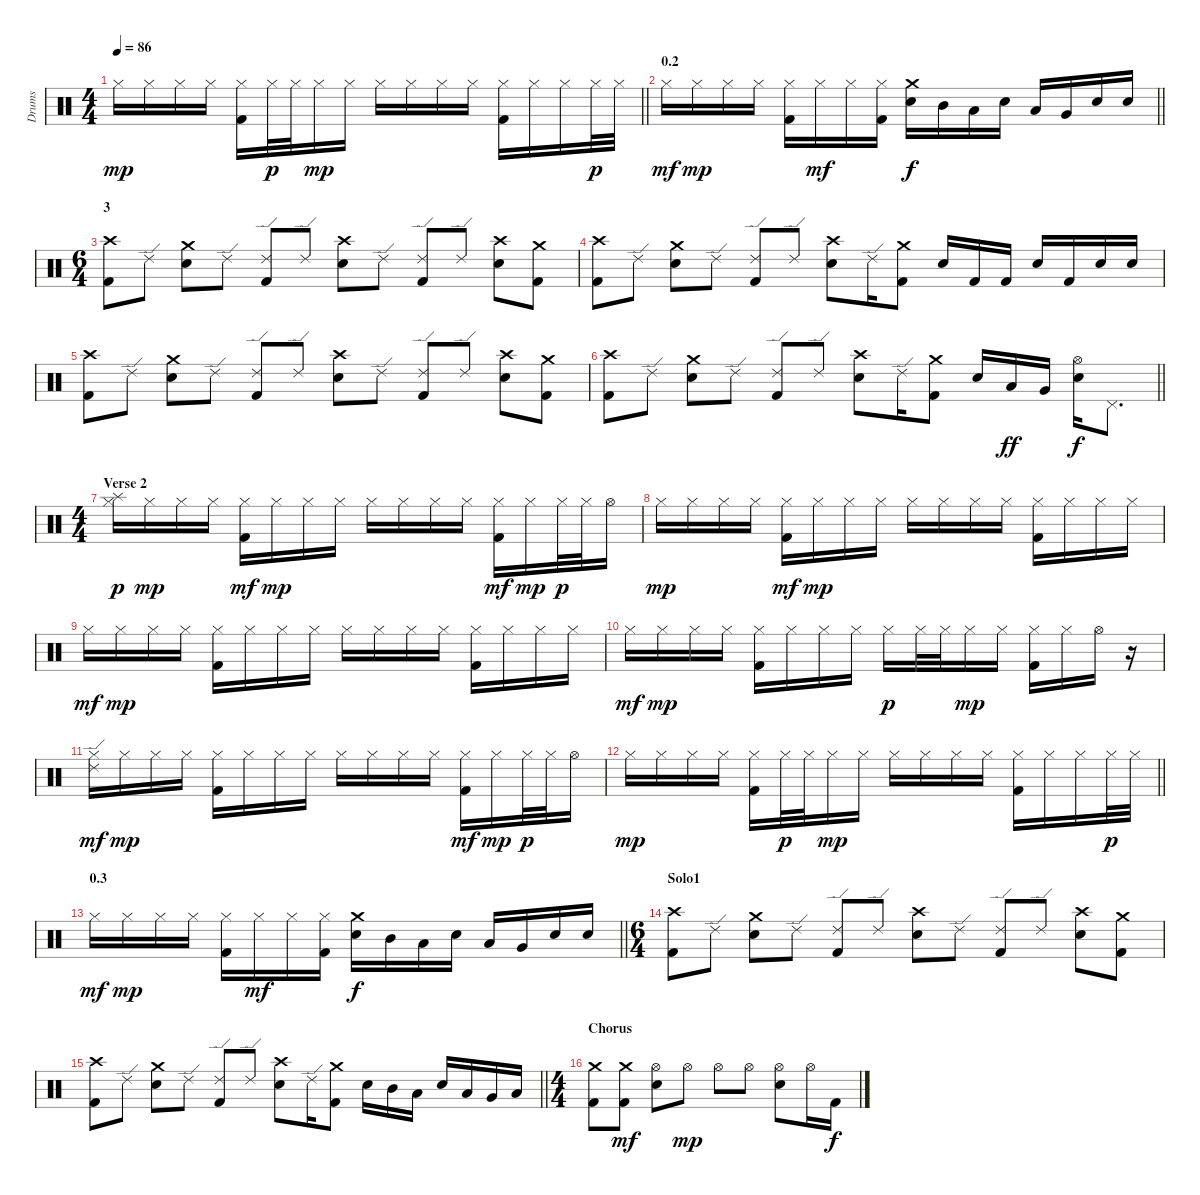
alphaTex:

\track ("Drums" "Drums") {instrument percussion}
\staff {score}
\articulation defaults
\ts (4 4)
\tempo 86
\clef neutral
\barLineRight lightlight
\ks c "Hi-Hat (closed)".16{dy mp} "Hi-Hat (closed)".16 "Hi-Hat (closed)".16 "Hi-Hat (closed)".16
("Hi-Hat (closed)" "Kick (hit) 2").16 "Hi-Hat (closed)".32{dy p} "Hi-Hat (closed)".32 "Hi-Hat (closed)".16{dy mp} "Hi-Hat (closed)".16 "Hi-Hat (closed)".16 "Hi-Hat (closed)".16 "Hi-Hat (closed)".16 "Hi-Hat (closed)".16 ("Hi-Hat (closed)" "Kick (hit) 2").16 "Hi-Hat (closed)".16 "Hi-Hat (closed)".16 "Hi-Hat (closed)".32{dy p} "Hi-Hat (closed)".32 |
\section ("" "0.2")
\barLineRight lightlight "Hi-Hat (closed)".16{dy mf} "Hi-Hat (closed)".16{dy mp} "Hi-Hat (closed)".16 "Hi-Hat (closed)".16
("Hi-Hat (closed)" "Kick (hit) 2").16 "Hi-Hat (closed)".16{dy mf} "Hi-Hat (closed)".16 ("Hi-Hat (closed)" "Kick (hit) 2").16 ("Crash medium (hit)" "Electric Snare (hit)").16{dy f} "Mid Tom (hit)".16 "Low Tom (hit)".16 "Electric Snare (hit)".16 "Low Tom (hit)".16 "Very Low Tom (hit)".16 "Electric Snare (hit)".16 "Electric Snare (hit)".16 |
\ts (6 4)
\section ("" "3")
("Crash high (hit)" "Kick (hit) 2").8 "Ride (edge) 2".8 ("Crash medium (hit)" "Electric Snare (hit)").8 "Ride (edge) 2".8 ("Ride (edge) 2" "Kick (hit) 2").8 "Ride (edge) 2".8 ("Crash high (hit)" "Electric Snare (hit)").8 "Ride (edge) 2".8 ("Ride (edge) 2" "Kick (hit) 2").8 "Ride (edge) 2".8 ("Crash high (hit)" "Electric Snare (hit)").8 ("Crash medium (hit)" "Kick (hit) 2").8 |
("Crash high (hit)" "Kick (hit) 2").8 "Ride (edge) 2".8 ("Crash medium (hit)" "Electric Snare (hit)").8 "Ride (edge) 2".8 ("Ride (edge) 2" "Kick (hit) 2").8 "Ride (edge) 2".8 ("Crash high (hit)" "Electric Snare (hit)").8 "Ride (edge) 2".16 ("Crash medium (hit)" "Kick (hit) 2").8 "Electric Snare (hit)".16 "Kick (hit) 2".16 "Kick (hit) 2".16 "Electric Snare (hit)".16 "Kick (hit) 2".16 "Electric Snare (hit)".16 "Electric Snare (hit)".16 |
("Crash high (hit)" "Kick (hit) 2").8 "Ride (edge) 2".8 ("Crash medium (hit)" "Electric Snare (hit)").8 "Ride (edge) 2".8 ("Ride (edge) 2" "Kick (hit) 2").8 "Ride (edge) 2".8 ("Crash high (hit)" "Electric Snare (hit)").8 "Ride (edge) 2".8 ("Ride (edge) 2" "Kick (hit) 2").8 "Ride (edge) 2".8 ("Crash high (hit)" "Electric Snare (hit)").8 ("Crash medium (hit)" "Kick (hit) 2").8 |
\barLineRight lightlight
("Crash high (hit)" "Kick (hit) 2").8 "Ride (edge) 2".8 ("Crash medium (hit)" "Electric Snare (hit)").8 "Ride (edge) 2".8 ("Ride (edge) 2" "Kick (hit) 2").8 "Ride (edge) 2".8 ("Crash high (hit)" "Electric Snare (hit)").8 "Ride (edge) 2".16 ("Crash medium (hit)" "Kick (hit) 2").8 "Electric Snare (hit)".16 "Low Tom (hit)".16{dy ff} "Very Low Tom (hit)".16 ("Hi-Hat (open)" "Electric Snare (hit)").16{dy f} "Pedal Hi-Hat (hit)".8{d} |
\ts (4 4)
\section ("" "Verse 2")
("Hi-Hat (closed)" "Splash (hit)").16{dy p} "Hi-Hat (closed)".16{dy mp} "Hi-Hat (closed)".16 "Hi-Hat (closed)".16 ("Hi-Hat (closed)" "Kick (hit) 2").16{dy mf} "Hi-Hat (closed)".16{dy mp} "Hi-Hat (closed)".16 "Hi-Hat (closed)".16 "Hi-Hat (closed)".16 "Hi-Hat (closed)".16 "Hi-Hat (closed)".16 "Hi-Hat (closed)".16 ("Hi-Hat (closed)" "Kick (hit) 2").16{dy mf} "Hi-Hat (closed)".16{dy mp} "Hi-Hat (closed)".32{dy p} "Hi-Hat (closed)".32 "Hi-Hat (open)".16 |
"Hi-Hat (closed)".16{dy mp} "Hi-Hat (closed)".16 "Hi-Hat (closed)".16 "Hi-Hat (closed)".16 ("Hi-Hat (closed)" "Kick (hit) 2").16{dy mf} "Hi-Hat (closed)".16{dy mp} "Hi-Hat (closed)".16 "Hi-Hat (closed)".16 "Hi-Hat (closed)".16 "Hi-Hat (closed)".16 "Hi-Hat (closed)".16 "Hi-Hat (closed)".16 ("Hi-Hat (closed)" "Kick (hit) 2").16 "Hi-Hat (closed)".16 "Hi-Hat (closed)".16 "Hi-Hat (closed)".16 |
"Hi-Hat (closed)".16{dy mf} "Hi-Hat (closed)".16{dy mp} "Hi-Hat (closed)".16 "Hi-Hat (closed)".16 ("Hi-Hat (closed)" "Kick (hit) 2").16 "Hi-Hat (closed)".16 "Hi-Hat (closed)".16 "Hi-Hat (closed)".16 "Hi-Hat (closed)".16 "Hi-Hat (closed)".16 "Hi-Hat (closed)".16 "Hi-Hat (closed)".16 ("Hi-Hat (closed)" "Kick (hit) 2").16 "Hi-Hat (closed)".16 "Hi-Hat (closed)".16 "Hi-Hat (closed)".16 |
"Hi-Hat (closed)".16{dy mf} "Hi-Hat (closed)".16{dy mp} "Hi-Hat (closed)".16 "Hi-Hat (closed)".16 ("Hi-Hat (closed)" "Kick (hit) 2").16 "Hi-Hat (closed)".16 "Hi-Hat (closed)".16 "Hi-Hat (closed)".16 "Hi-Hat (closed)".16{dy p} "Hi-Hat (closed)".32 "Hi-Hat (closed)".32 "Hi-Hat (closed)".16{dy mp} "Hi-Hat (closed)".16 ("Hi-Hat (closed)" "Kick (hit) 2").16 "Hi-Hat (closed)".16 "Hi-Hat (open)".16 r.16 |
("Ride (edge) 2" "Hi-Hat (closed)").16{dy mf} "Hi-Hat (closed)".16{dy mp} "Hi-Hat (closed)".16 "Hi-Hat (closed)".16 ("Hi-Hat (closed)" "Kick (hit) 2").16 "Hi-Hat (closed)".16 "Hi-Hat (closed)".16 "Hi-Hat (closed)".16 "Hi-Hat (closed)".16 "Hi-Hat (closed)".16 "Hi-Hat (closed)".16 "Hi-Hat (closed)".16 ("Hi-Hat (closed)" "Kick (hit) 2").16{dy mf} "Hi-Hat (closed)".16{dy mp} "Hi-Hat (closed)".32{dy p} "Hi-Hat (closed)".32 "Hi-Hat (open)".16 |
\barLineRight lightlight "Hi-Hat (closed)".16{dy mp} "Hi-Hat (closed)".16 "Hi-Hat (closed)".16 "Hi-Hat (closed)".16
("Hi-Hat (closed)" "Kick (hit) 2").16 "Hi-Hat (closed)".32{dy p} "Hi-Hat (closed)".32 "Hi-Hat (closed)".16{dy mp} "Hi-Hat (closed)".16 "Hi-Hat (closed)".16 "Hi-Hat (closed)".16 "Hi-Hat (closed)".16 "Hi-Hat (closed)".16 ("Hi-Hat (closed)" "Kick (hit) 2").16 "Hi-Hat (closed)".16 "Hi-Hat (closed)".16 "Hi-Hat (closed)".32{dy p} "Hi-Hat (closed)".32 |
\section ("" "0.3")
\barLineRight lightlight "Hi-Hat (closed)".16{dy mf} "Hi-Hat (closed)".16{dy mp} "Hi-Hat (closed)".16 "Hi-Hat (closed)".16
("Hi-Hat (closed)" "Kick (hit) 2").16 "Hi-Hat (closed)".16{dy mf} "Hi-Hat (closed)".16 ("Hi-Hat (closed)" "Kick (hit) 2").16 ("Crash medium (hit)" "Electric Snare (hit)").16{dy f} "Mid Tom (hit)".16 "Low Tom (hit)".16 "Electric Snare (hit)".16 "Low Tom (hit)".16 "Very Low Tom (hit)".16 "Electric Snare (hit)".16 "Electric Snare (hit)".16 |
\ts (6 4)
\section ("" "Solo1")
("Crash high (hit)" "Kick (hit) 2").8 "Ride (edge) 2".8 ("Crash medium (hit)" "Electric Snare (hit)").8 "Ride (edge) 2".8 ("Ride (edge) 2" "Kick (hit) 2").8 "Ride (edge) 2".8 ("Crash high (hit)" "Electric Snare (hit)").8 "Ride (edge) 2".8 ("Ride (edge) 2" "Kick (hit) 2").8 "Ride (edge) 2".8 ("Crash high (hit)" "Electric Snare (hit)").8 ("Crash medium (hit)" "Kick (hit) 2").8 |
\barLineRight lightlight
("Crash high (hit)" "Kick (hit) 2").8 "Ride (edge) 2".8 ("Crash medium (hit)" "Electric Snare (hit)").8 "Ride (edge) 2".8 ("Ride (edge) 2" "Kick (hit) 2").8 "Ride (edge) 2".8 ("Crash high (hit)" "Electric Snare (hit)").8 "Ride (edge) 2".16 ("Crash medium (hit)" "Kick (hit) 2").8 "Electric Snare (hit)".16 "Mid Tom (hit)".16 "Low Tom (hit)".16 "Electric Snare (hit)".16 "Low Tom (hit)".16 "Very Low Tom (hit)".16 "Low Floor Tom (hit)".16 |
\ts (4 4)
\section ("" "Chorus")
("Crash medium (hit)" "Kick (hit) 2").8 ("Crash medium (hit)" "Kick (hit) 2").8{dy mf} ("Hi-Hat (open)" "Electric Snare (hit)").8 "Hi-Hat (open)".8{dy mp} "Hi-Hat (open)".8 "Hi-Hat (open)".8 ("Hi-Hat (open)" "Electric Snare (hit)").8 "Hi-Hat (open)".16 "Kick (hit) 2".16{dy f}
